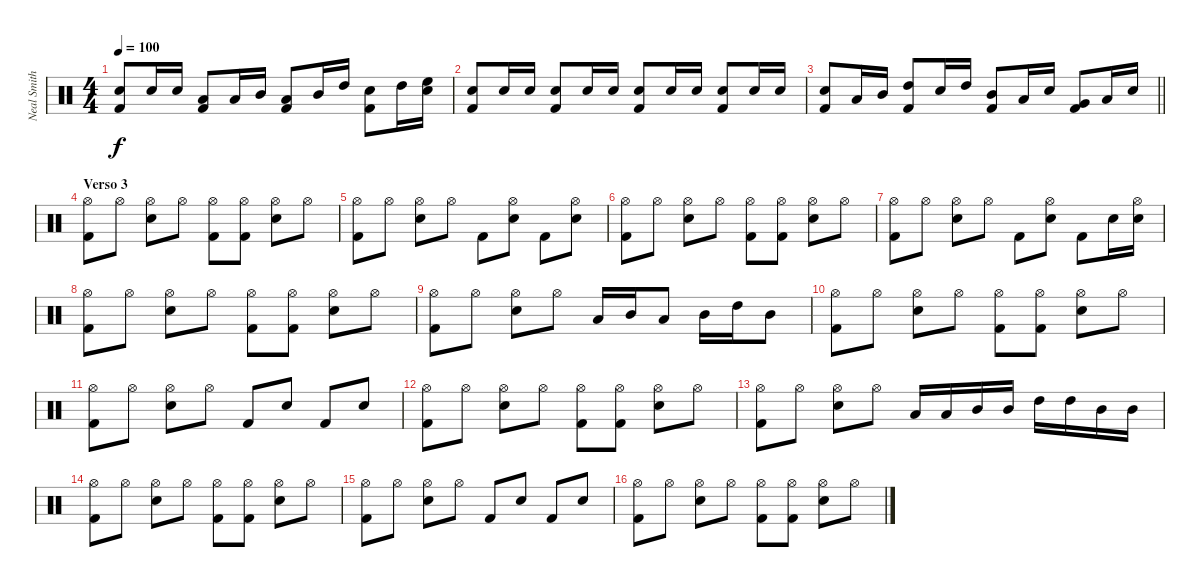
\track ("Neal Smith" "Neal Smith") {instrument percussion}
\staff {score}
\articulation defaults
\ts (4 4)
\tempo 100
\clef neutral
\ks c
("Snare (hit) 2" "Kick (hit) 2").8{dy f} "Snare (hit) 2".16 "Snare (hit) 2".16 ("Low Tom (hit)" "Kick (hit) 2").8 "Low Tom (hit)".16 "Mid Tom (hit)".16 ("Low Tom (hit)" "Kick (hit) 2").8 "Mid Tom (hit)".16 "High Tom (hit)".16 ("Snare (hit) 2" "Kick (hit) 2").8 "High Tom (hit)".16 ("High Floor Tom (hit)" "Snare (hit) 2").16 |
("Snare (hit) 2" "Kick (hit) 2").8 "Snare (hit) 2".16 "Snare (hit) 2".16 ("Snare (hit) 2" "Kick (hit) 2").8 "Snare (hit) 2".16 "Snare (hit) 2".16 ("Snare (hit) 2" "Kick (hit) 2").8 "Snare (hit) 2".16 "Snare (hit) 2".16 ("Snare (hit) 2" "Kick (hit) 2").8 "Snare (hit) 2".16 "Snare (hit) 2".16 |
\barLineRight lightlight
("Snare (hit) 2" "Kick (hit) 2").8 "Low Tom (hit)".16 "Mid Tom (hit)".16 ("High Tom (hit)" "Kick (hit) 2").8 "Snare (hit) 2".16 "High Tom (hit)".16 ("Mid Tom (hit)" "Kick (hit) 2").8 "Low Tom (hit)".16 "Snare (hit) 2".16 ("Very Low Tom (hit)" "Kick (hit) 2").8 "Low Floor Tom (hit)".16 "Snare (hit) 2".16 |
\section ("" "Verso 3")
("Hi-Hat (open)" "Kick (hit) 2").8 "Hi-Hat (open)".8 ("Hi-Hat (open)" "Snare (hit) 2").8 "Hi-Hat (open)".8 ("Hi-Hat (open)" "Kick (hit) 2").8 ("Hi-Hat (open)" "Kick (hit) 2").8 ("Hi-Hat (open)" "Snare (hit) 2").8 "Hi-Hat (open)".8 |
("Hi-Hat (open)" "Kick (hit) 2").8 "Hi-Hat (open)".8 ("Hi-Hat (open)" "Snare (hit) 2").8 "Hi-Hat (open)".8 "Kick (hit) 2".8 ("Hi-Hat (open)" "Snare (hit) 2").8 "Kick (hit) 2".8 ("Hi-Hat (open)" "Snare (hit) 2").8 |
("Hi-Hat (open)" "Kick (hit) 2").8 "Hi-Hat (open)".8 ("Hi-Hat (open)" "Snare (hit) 2").8 "Hi-Hat (open)".8 ("Hi-Hat (open)" "Kick (hit) 2").8 ("Hi-Hat (open)" "Kick (hit) 2").8 ("Hi-Hat (open)" "Snare (hit) 2").8 "Hi-Hat (open)".8 |
("Hi-Hat (open)" "Kick (hit) 2").8 "Hi-Hat (open)".8 ("Hi-Hat (open)" "Snare (hit) 2").8 "Hi-Hat (open)".8 "Kick (hit) 2".8 ("Hi-Hat (open)" "Snare (hit) 2").8 "Kick (hit) 2".8 "Snare (hit) 2".16 ("Hi-Hat (open)" "Snare (hit) 2").16 |
("Hi-Hat (open)" "Kick (hit) 2").8 "Hi-Hat (open)".8 ("Hi-Hat (open)" "Snare (hit) 2").8 "Hi-Hat (open)".8 ("Hi-Hat (open)" "Kick (hit) 2").8 ("Hi-Hat (open)" "Kick (hit) 2").8 ("Hi-Hat (open)" "Snare (hit) 2").8 "Hi-Hat (open)".8 |
("Hi-Hat (open)" "Kick (hit) 2").8 "Hi-Hat (open)".8 ("Hi-Hat (open)" "Snare (hit) 2").8 "Hi-Hat (open)".8 "Low Tom (hit)".16 "Mid Tom (hit)".16 "Low Tom (hit)".8 "Mid Tom (hit)".16 "High Tom (hit)".16 "Mid Tom (hit)".8 |
("Hi-Hat (open)" "Kick (hit) 2").8 "Hi-Hat (open)".8 ("Hi-Hat (open)" "Snare (hit) 2").8 "Hi-Hat (open)".8 ("Hi-Hat (open)" "Kick (hit) 2").8 ("Hi-Hat (open)" "Kick (hit) 2").8 ("Hi-Hat (open)" "Snare (hit) 2").8 "Hi-Hat (open)".8 |
("Hi-Hat (open)" "Kick (hit) 2").8 "Hi-Hat (open)".8 ("Hi-Hat (open)" "Snare (hit) 2").8 "Hi-Hat (open)".8 "Kick (hit) 2".8 "Snare (hit) 2".8 "Kick (hit) 2".8 "Snare (hit) 2".8 |
("Hi-Hat (open)" "Kick (hit) 2").8 "Hi-Hat (open)".8 ("Hi-Hat (open)" "Snare (hit) 2").8 "Hi-Hat (open)".8 ("Hi-Hat (open)" "Kick (hit) 2").8 ("Hi-Hat (open)" "Kick (hit) 2").8 ("Hi-Hat (open)" "Snare (hit) 2").8 "Hi-Hat (open)".8 |
("Hi-Hat (open)" "Kick (hit) 2").8 "Hi-Hat (open)".8 ("Hi-Hat (open)" "Snare (hit) 2").8 "Hi-Hat (open)".8 "Low Tom (hit)".16 "Low Tom (hit)".16 "Mid Tom (hit)".16 "Mid Tom (hit)".16 "High Tom (hit)".16 "High Tom (hit)".16 "Mid Tom (hit)".16 "Mid Tom (hit)".16 |
("Hi-Hat (open)" "Kick (hit) 2").8 "Hi-Hat (open)".8 ("Hi-Hat (open)" "Snare (hit) 2").8 "Hi-Hat (open)".8 ("Hi-Hat (open)" "Kick (hit) 2").8 ("Hi-Hat (open)" "Kick (hit) 2").8 ("Hi-Hat (open)" "Snare (hit) 2").8 "Hi-Hat (open)".8 |
("Hi-Hat (open)" "Kick (hit) 2").8 "Hi-Hat (open)".8 ("Hi-Hat (open)" "Snare (hit) 2").8 "Hi-Hat (open)".8 "Kick (hit) 2".8 "Snare (hit) 2".8 "Kick (hit) 2".8 "Snare (hit) 2".8 |
("Hi-Hat (open)" "Kick (hit) 2").8 "Hi-Hat (open)".8 ("Hi-Hat (open)" "Snare (hit) 2").8 "Hi-Hat (open)".8 ("Hi-Hat (open)" "Kick (hit) 2").8 ("Hi-Hat (open)" "Kick (hit) 2").8 ("Hi-Hat (open)" "Snare (hit) 2").8 "Hi-Hat (open)".8
